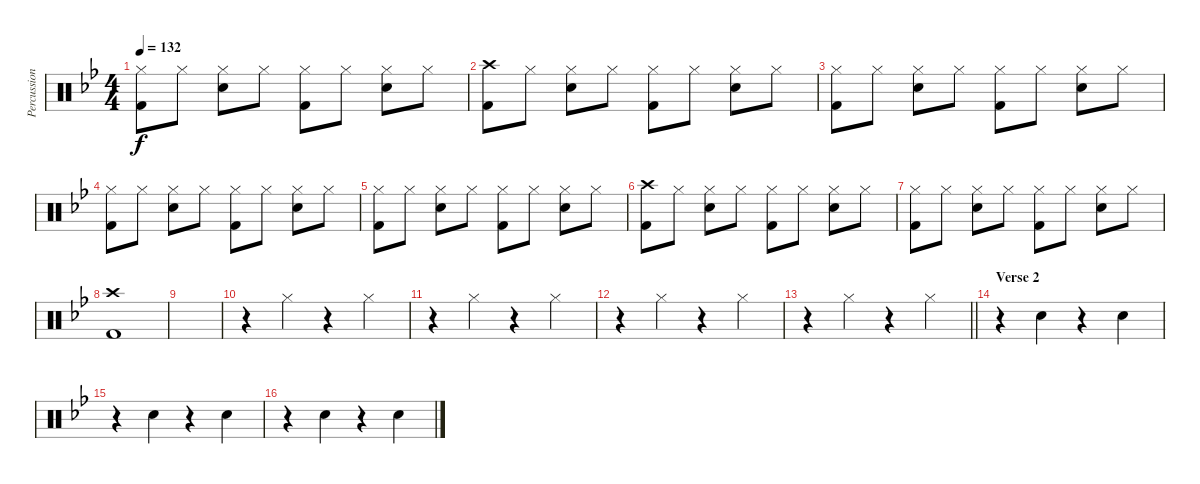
\track ("Percussion" "Percussion") {instrument percussion}
\staff {score}
\articulation defaults
\ts (4 4)
\tempo 132
\clef neutral
\ks bb
("Hi-Hat (closed)" "Kick (hit) 2").8{dy f} "Hi-Hat (closed)".8 ("Hi-Hat (closed)" "Snare (hit) 2").8 "Hi-Hat (closed)".8 ("Hi-Hat (closed)" "Kick (hit) 2").8 "Hi-Hat (closed)".8 ("Hi-Hat (closed)" "Snare (hit) 2").8 "Hi-Hat (closed)".8 |
("Crash high (hit)" "Kick (hit) 2").8 "Hi-Hat (closed)".8 ("Hi-Hat (closed)" "Snare (hit) 2").8 "Hi-Hat (closed)".8 ("Hi-Hat (closed)" "Kick (hit) 2").8 "Hi-Hat (closed)".8 ("Hi-Hat (closed)" "Snare (hit) 2").8 "Hi-Hat (closed)".8 |
("Hi-Hat (closed)" "Kick (hit) 2").8 "Hi-Hat (closed)".8 ("Hi-Hat (closed)" "Snare (hit) 2").8 "Hi-Hat (closed)".8 ("Hi-Hat (closed)" "Kick (hit) 2").8 "Hi-Hat (closed)".8 ("Hi-Hat (closed)" "Snare (hit) 2").8 "Hi-Hat (closed)".8 |
("Hi-Hat (closed)" "Kick (hit) 2").8 "Hi-Hat (closed)".8 ("Hi-Hat (closed)" "Snare (hit) 2").8 "Hi-Hat (closed)".8 ("Hi-Hat (closed)" "Kick (hit) 2").8 "Hi-Hat (closed)".8 ("Hi-Hat (closed)" "Snare (hit) 2").8 "Hi-Hat (closed)".8 |
("Hi-Hat (closed)" "Kick (hit) 2").8 "Hi-Hat (closed)".8 ("Hi-Hat (closed)" "Snare (hit) 2").8 "Hi-Hat (closed)".8 ("Hi-Hat (closed)" "Kick (hit) 2").8 "Hi-Hat (closed)".8 ("Hi-Hat (closed)" "Snare (hit) 2").8 "Hi-Hat (closed)".8 |
("Crash high (hit)" "Kick (hit) 2").8 "Hi-Hat (closed)".8 ("Hi-Hat (closed)" "Snare (hit) 2").8 "Hi-Hat (closed)".8 ("Hi-Hat (closed)" "Kick (hit) 2").8 "Hi-Hat (closed)".8 ("Hi-Hat (closed)" "Snare (hit) 2").8 "Hi-Hat (closed)".8 |
("Hi-Hat (closed)" "Kick (hit) 2").8 "Hi-Hat (closed)".8 ("Hi-Hat (closed)" "Snare (hit) 2").8 "Hi-Hat (closed)".8 ("Hi-Hat (closed)" "Kick (hit) 2").8 "Hi-Hat (closed)".8 ("Hi-Hat (closed)" "Snare (hit) 2").8 "Hi-Hat (closed)".8 |
("Crash high (hit)" "Kick (hit) 2").1 |
|
r.4 "Hi-Hat (closed)".4 r.4 "Hi-Hat (closed)".4 |
r.4 "Hi-Hat (closed)".4 r.4 "Hi-Hat (closed)".4 |
r.4 "Hi-Hat (closed)".4 r.4 "Hi-Hat (closed)".4 |
\barLineRight lightlight
r.4 "Hi-Hat (closed)".4 r.4 "Hi-Hat (closed)".4 |
\section ("" "Verse 2")
r.4 "Snare (hit) 2".4 r.4 "Snare (hit) 2".4 |
r.4 "Snare (hit) 2".4 r.4 "Snare (hit) 2".4 |
r.4 "Snare (hit) 2".4 r.4 "Snare (hit) 2".4
